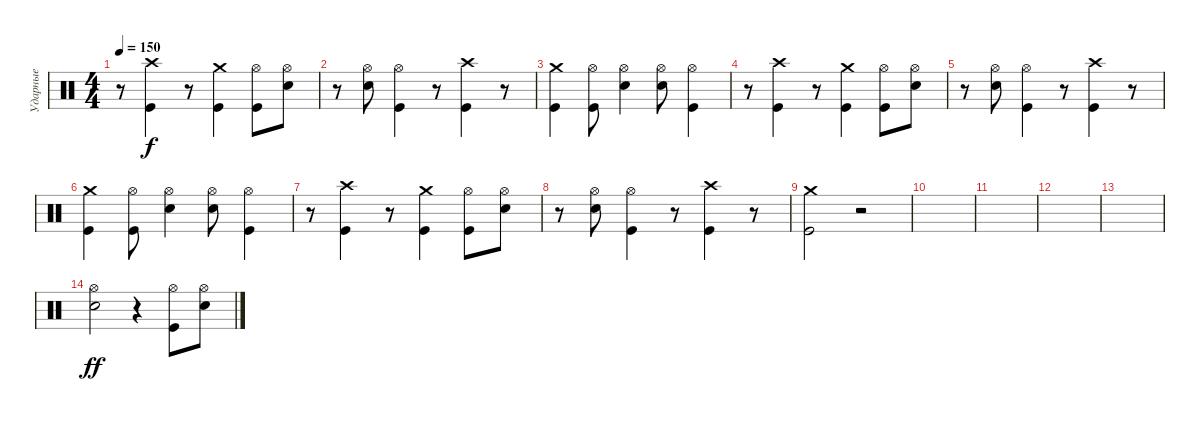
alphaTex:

\track ("Ударные" "Ударные") {instrument percussion}
\staff {score}
\articulation defaults
\ts (4 4)
\tempo 150
\clef neutral
\ks c
r.8{dy f} ("Kick (hit)" "Crash high (hit)").4 r.8 ("Kick (hit)" "Crash medium (hit)").4 ("Kick (hit)" "Hi-Hat (open)").8 ("Electric Snare (hit)" "Hi-Hat (open)").8 |
r.8 ("Electric Snare (hit)" "Hi-Hat (open)").8 ("Kick (hit)" "Hi-Hat (open)").4 r.8 ("Kick (hit)" "Crash high (hit)").4 r.8 |
("Kick (hit)" "Crash medium (hit)").4 ("Kick (hit)" "Hi-Hat (open)").8 ("Electric Snare (hit)" "Hi-Hat (open)").4 ("Electric Snare (hit)" "Hi-Hat (open)").8 ("Kick (hit)" "Hi-Hat (open)").4 |
r.8 ("Kick (hit)" "Crash high (hit)").4 r.8 ("Kick (hit)" "Crash medium (hit)").4 ("Kick (hit)" "Hi-Hat (open)").8 ("Electric Snare (hit)" "Hi-Hat (open)").8 |
r.8 ("Electric Snare (hit)" "Hi-Hat (open)").8 ("Kick (hit)" "Hi-Hat (open)").4 r.8 ("Kick (hit)" "Crash high (hit)").4 r.8 |
("Kick (hit)" "Crash medium (hit)").4 ("Kick (hit)" "Hi-Hat (open)").8 ("Electric Snare (hit)" "Hi-Hat (open)").4 ("Electric Snare (hit)" "Hi-Hat (open)").8 ("Kick (hit)" "Hi-Hat (open)").4 |
r.8 ("Kick (hit)" "Crash high (hit)").4 r.8 ("Kick (hit)" "Crash medium (hit)").4 ("Kick (hit)" "Hi-Hat (open)").8 ("Electric Snare (hit)" "Hi-Hat (open)").8 |
r.8 ("Electric Snare (hit)" "Hi-Hat (open)").8 ("Kick (hit)" "Hi-Hat (open)").4 r.8 ("Kick (hit)" "Crash high (hit)").4 r.8 |
("Kick (hit)" "Crash medium (hit)").2 r.2 |
|
|
|
|
("Electric Snare (hit)" "Hi-Hat (open)").2{dy ff} r.4 ("Kick (hit)" "Hi-Hat (open)").8 ("Electric Snare (hit)" "Hi-Hat (open)").8
